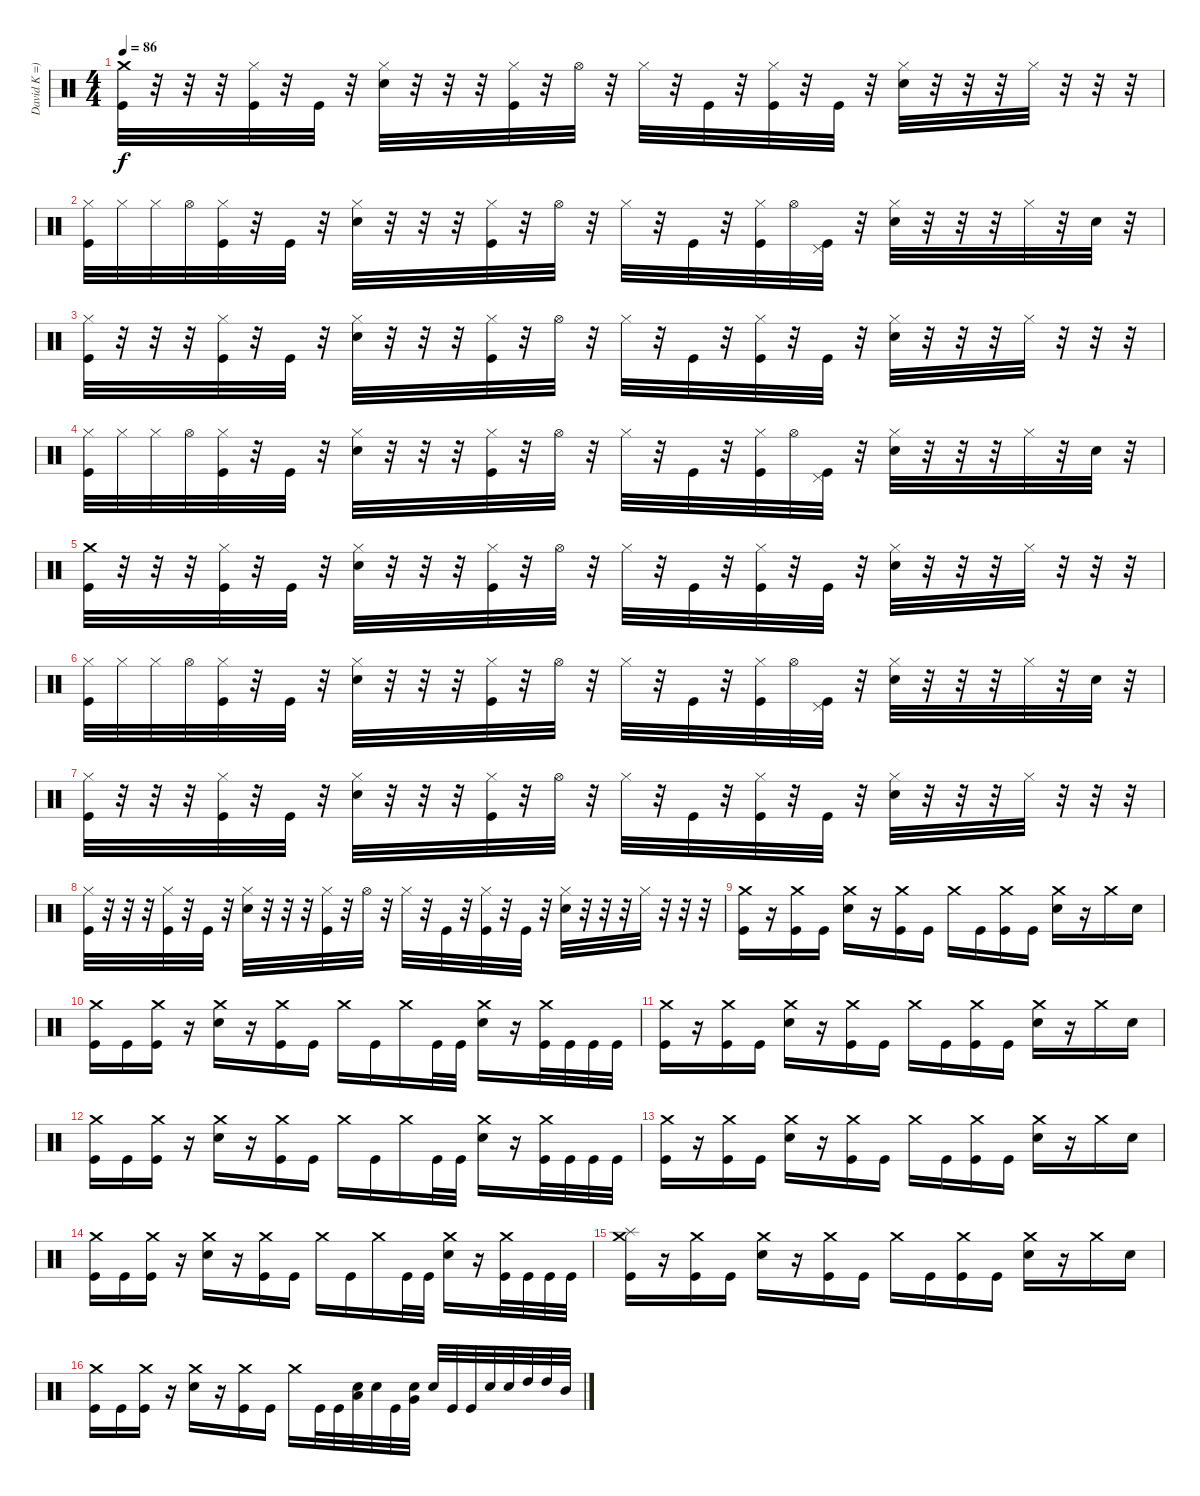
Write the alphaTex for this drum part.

\track ("David K =)" "David K =)") {instrument percussion}
\staff {score}
\articulation defaults
\ts (4 4)
\tempo 86
\clef neutral
\ks c
("Crash medium (hit)" "Kick (hit)").32{dy f} r.32 r.32 r.32 ("Hi-Hat (closed)" "Kick (hit)").32 r.32 "Kick (hit)".32 r.32 ("Hi-Hat (closed)" "Electric Snare (hit)").32 r.32 r.32 r.32 ("Hi-Hat (closed)" "Kick (hit)").32 r.32 "Hi-Hat (open)".32 r.32 "Hi-Hat (closed)".32 r.32 "Kick (hit)".32 r.32 ("Hi-Hat (closed)" "Kick (hit)").32 r.32 "Kick (hit)".32 r.32 ("Hi-Hat (closed)" "Electric Snare (hit)").32 r.32 r.32 r.32 "Hi-Hat (closed)".32 r.32 r.32 r.32 |
("Hi-Hat (closed)" "Kick (hit)").32 "Hi-Hat (closed)".32 "Hi-Hat (closed)".32 "Hi-Hat (open)".32 ("Hi-Hat (closed)" "Kick (hit)").32 r.32 "Kick (hit)".32 r.32 ("Hi-Hat (closed)" "Electric Snare (hit)").32 r.32 r.32 r.32 ("Hi-Hat (closed)" "Kick (hit)").32 r.32 "Hi-Hat (open)".32 r.32 "Hi-Hat (closed)".32 r.32 "Kick (hit)".32 r.32 ("Hi-Hat (closed)" "Kick (hit)").32 "Hi-Hat (open)".32 ("Pedal Hi-Hat (hit)" "Kick (hit)").32 r.32 ("Hi-Hat (closed)" "Electric Snare (hit)").32 r.32 r.32 r.32 "Hi-Hat (closed)".32 r.32 "Electric Snare (hit)".32 r.32 |
("Hi-Hat (closed)" "Kick (hit)").32 r.32 r.32 r.32 ("Hi-Hat (closed)" "Kick (hit)").32 r.32 "Kick (hit)".32 r.32 ("Hi-Hat (closed)" "Electric Snare (hit)").32 r.32 r.32 r.32 ("Hi-Hat (closed)" "Kick (hit)").32 r.32 "Hi-Hat (open)".32 r.32 "Hi-Hat (closed)".32 r.32 "Kick (hit)".32 r.32 ("Hi-Hat (closed)" "Kick (hit)").32 r.32 "Kick (hit)".32 r.32 ("Hi-Hat (closed)" "Electric Snare (hit)").32 r.32 r.32 r.32 "Hi-Hat (closed)".32 r.32 r.32 r.32 |
("Hi-Hat (closed)" "Kick (hit)").32 "Hi-Hat (closed)".32 "Hi-Hat (closed)".32 "Hi-Hat (open)".32 ("Hi-Hat (closed)" "Kick (hit)").32 r.32 "Kick (hit)".32 r.32 ("Hi-Hat (closed)" "Electric Snare (hit)").32 r.32 r.32 r.32 ("Hi-Hat (closed)" "Kick (hit)").32 r.32 "Hi-Hat (open)".32 r.32 "Hi-Hat (closed)".32 r.32 "Kick (hit)".32 r.32 ("Hi-Hat (closed)" "Kick (hit)").32 "Hi-Hat (open)".32 ("Pedal Hi-Hat (hit)" "Kick (hit)").32 r.32 ("Hi-Hat (closed)" "Electric Snare (hit)").32 r.32 r.32 r.32 "Hi-Hat (closed)".32 r.32 "Electric Snare (hit)".32 r.32 |
("Crash medium (hit)" "Kick (hit)").32 r.32 r.32 r.32 ("Hi-Hat (closed)" "Kick (hit)").32 r.32 "Kick (hit)".32 r.32 ("Hi-Hat (closed)" "Electric Snare (hit)").32 r.32 r.32 r.32 ("Hi-Hat (closed)" "Kick (hit)").32 r.32 "Hi-Hat (open)".32 r.32 "Hi-Hat (closed)".32 r.32 "Kick (hit)".32 r.32 ("Hi-Hat (closed)" "Kick (hit)").32 r.32 "Kick (hit)".32 r.32 ("Hi-Hat (closed)" "Electric Snare (hit)").32 r.32 r.32 r.32 "Hi-Hat (closed)".32 r.32 r.32 r.32 |
("Hi-Hat (closed)" "Kick (hit)").32 "Hi-Hat (closed)".32 "Hi-Hat (closed)".32 "Hi-Hat (open)".32 ("Hi-Hat (closed)" "Kick (hit)").32 r.32 "Kick (hit)".32 r.32 ("Hi-Hat (closed)" "Electric Snare (hit)").32 r.32 r.32 r.32 ("Hi-Hat (closed)" "Kick (hit)").32 r.32 "Hi-Hat (open)".32 r.32 "Hi-Hat (closed)".32 r.32 "Kick (hit)".32 r.32 ("Hi-Hat (closed)" "Kick (hit)").32 "Hi-Hat (open)".32 ("Pedal Hi-Hat (hit)" "Kick (hit)").32 r.32 ("Hi-Hat (closed)" "Electric Snare (hit)").32 r.32 r.32 r.32 "Hi-Hat (closed)".32 r.32 "Electric Snare (hit)".32 r.32 |
("Hi-Hat (closed)" "Kick (hit)").32 r.32 r.32 r.32 ("Hi-Hat (closed)" "Kick (hit)").32 r.32 "Kick (hit)".32 r.32 ("Hi-Hat (closed)" "Electric Snare (hit)").32 r.32 r.32 r.32 ("Hi-Hat (closed)" "Kick (hit)").32 r.32 "Hi-Hat (open)".32 r.32 "Hi-Hat (closed)".32 r.32 "Kick (hit)".32 r.32 ("Hi-Hat (closed)" "Kick (hit)").32 r.32 "Kick (hit)".32 r.32 ("Hi-Hat (closed)" "Electric Snare (hit)").32 r.32 r.32 r.32 "Hi-Hat (closed)".32 r.32 r.32 r.32 |
("Hi-Hat (closed)" "Kick (hit)").32 r.32 r.32 r.32 ("Hi-Hat (closed)" "Kick (hit)").32 r.32 "Kick (hit)".32 r.32 ("Hi-Hat (closed)" "Electric Snare (hit)").32 r.32 r.32 r.32 ("Hi-Hat (closed)" "Kick (hit)").32 r.32 "Hi-Hat (open)".32 r.32 "Hi-Hat (closed)".32 r.32 "Kick (hit)".32 r.32 ("Hi-Hat (closed)" "Kick (hit)").32 r.32 "Kick (hit)".32 r.32 ("Hi-Hat (closed)" "Electric Snare (hit)").32 r.32 r.32 r.32 "Hi-Hat (closed)".32 r.32 r.32 r.32 |
("Crash medium (hit)" "Kick (hit)").16 r.16 ("Crash medium (hit)" "Kick (hit)").16 "Kick (hit)".16 ("Crash medium (hit)" "Electric Snare (hit)").16 r.16 ("Crash medium (hit)" "Kick (hit)").16 "Kick (hit)".16 "Crash medium (hit)".16 "Kick (hit)".16 ("Crash medium (hit)" "Kick (hit)").16 "Kick (hit)".16 ("Crash medium (hit)" "Electric Snare (hit)").16 r.16 "Crash medium (hit)".16 "Electric Snare (hit)".16 |
("Crash medium (hit)" "Kick (hit)").16 "Kick (hit)".16 ("Crash medium (hit)" "Kick (hit)").16 r.16 ("Crash medium (hit)" "Electric Snare (hit)").16 r.16 ("Crash medium (hit)" "Kick (hit)").16 "Kick (hit)".16 "Crash medium (hit)".16 "Kick (hit)".16 "Crash medium (hit)".16 "Kick (hit)".32 "Kick (hit)".32 ("Crash medium (hit)" "Electric Snare (hit)").16 r.16 ("Crash medium (hit)" "Kick (hit)").32 "Kick (hit)".32 "Kick (hit)".32 "Kick (hit)".32 |
("Crash medium (hit)" "Kick (hit)").16 r.16 ("Crash medium (hit)" "Kick (hit)").16 "Kick (hit)".16 ("Crash medium (hit)" "Electric Snare (hit)").16 r.16 ("Crash medium (hit)" "Kick (hit)").16 "Kick (hit)".16 "Crash medium (hit)".16 "Kick (hit)".16 ("Crash medium (hit)" "Kick (hit)").16 "Kick (hit)".16 ("Crash medium (hit)" "Electric Snare (hit)").16 r.16 "Crash medium (hit)".16 "Electric Snare (hit)".16 |
("Crash medium (hit)" "Kick (hit)").16 "Kick (hit)".16 ("Crash medium (hit)" "Kick (hit)").16 r.16 ("Crash medium (hit)" "Electric Snare (hit)").16 r.16 ("Crash medium (hit)" "Kick (hit)").16 "Kick (hit)".16 "Crash medium (hit)".16 "Kick (hit)".16 "Crash medium (hit)".16 "Kick (hit)".32 "Kick (hit)".32 ("Crash medium (hit)" "Electric Snare (hit)").16 r.16 ("Crash medium (hit)" "Kick (hit)").32 "Kick (hit)".32 "Kick (hit)".32 "Kick (hit)".32 |
("Crash medium (hit)" "Kick (hit)").16 r.16 ("Crash medium (hit)" "Kick (hit)").16 "Kick (hit)".16 ("Crash medium (hit)" "Electric Snare (hit)").16 r.16 ("Crash medium (hit)" "Kick (hit)").16 "Kick (hit)".16 "Crash medium (hit)".16 "Kick (hit)".16 ("Crash medium (hit)" "Kick (hit)").16 "Kick (hit)".16 ("Crash medium (hit)" "Electric Snare (hit)").16 r.16 "Crash medium (hit)".16 "Electric Snare (hit)".16 |
("Crash medium (hit)" "Kick (hit)").16 "Kick (hit)".16 ("Crash medium (hit)" "Kick (hit)").16 r.16 ("Crash medium (hit)" "Electric Snare (hit)").16 r.16 ("Crash medium (hit)" "Kick (hit)").16 "Kick (hit)".16 "Crash medium (hit)".16 "Kick (hit)".16 "Crash medium (hit)".16 "Kick (hit)".32 "Kick (hit)".32 ("Crash medium (hit)" "Electric Snare (hit)").16 r.16 ("Crash medium (hit)" "Kick (hit)").32 "Kick (hit)".32 "Kick (hit)".32 "Kick (hit)".32 |
("Splash (hit)" "Crash medium (hit)" "Kick (hit)").16 r.16 ("Crash medium (hit)" "Kick (hit)").16 "Kick (hit)".16 ("Crash medium (hit)" "Electric Snare (hit)").16 r.16 ("Crash medium (hit)" "Kick (hit)").16 "Kick (hit)".16 "Crash medium (hit)".16 "Kick (hit)".16 ("Crash medium (hit)" "Kick (hit)").16 "Kick (hit)".16 ("Crash medium (hit)" "Electric Snare (hit)").16 r.16 "Crash medium (hit)".16 "Electric Snare (hit)".16 |
("Crash medium (hit)" "Kick (hit)").16 "Kick (hit)".16 ("Crash medium (hit)" "Kick (hit)").16 r.16 ("Crash medium (hit)" "Electric Snare (hit)").16 r.16 ("Crash medium (hit)" "Kick (hit)").16 "Kick (hit)".16 "Crash medium (hit)".16 "Kick (hit)".32 "Kick (hit)".32 ("Low Floor Tom (hit)" "Electric Snare (hit)").32 "Electric Snare (hit)".32 "Kick (hit)".32 ("Very Low Tom (hit)" "Electric Snare (hit)").32 "Electric Snare (hit)".32 "Kick (hit)".32 "Kick (hit)".32 "Electric Snare (hit)".32 "Electric Snare (hit)".32 "High Tom (hit)".32 "High Tom (hit)".32 "Mid Tom (hit)".32
